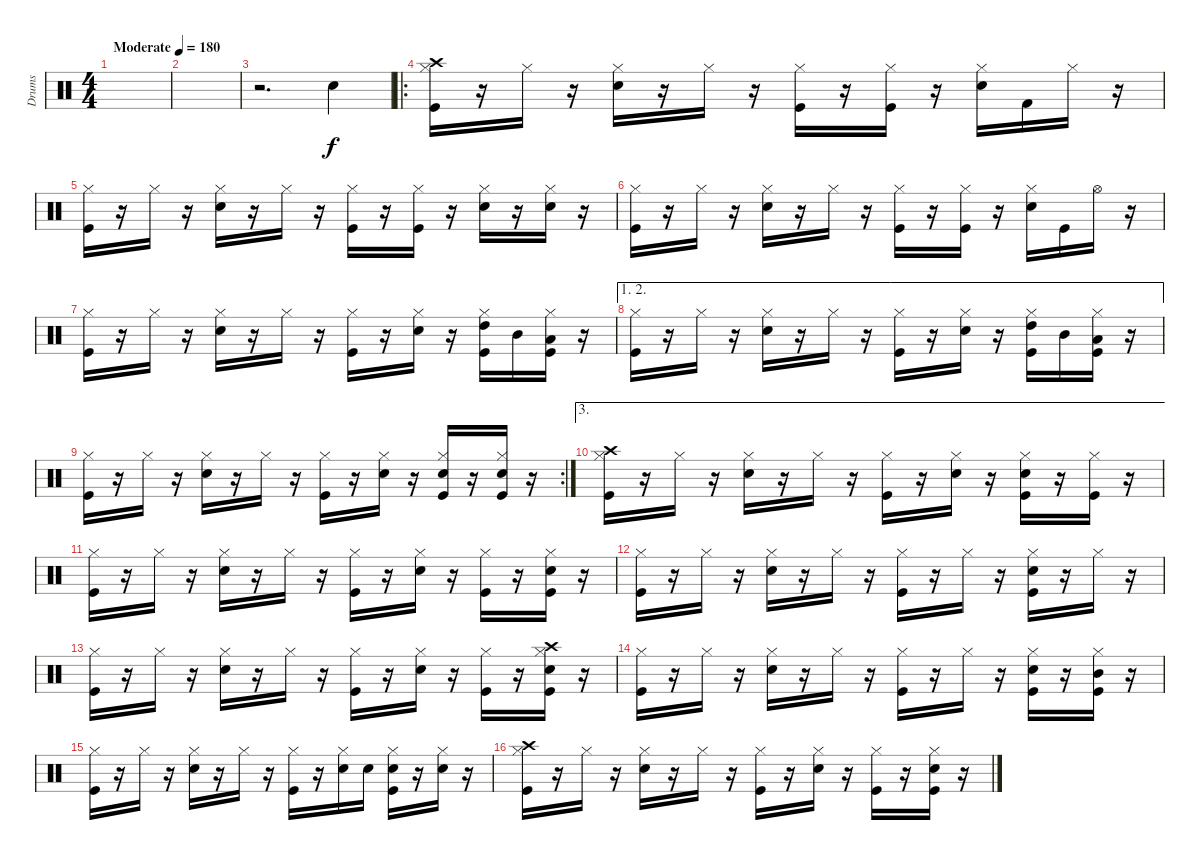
\track ("Drums" "Drums") {instrument percussion}
\staff {score}
\articulation defaults
\ts (4 4)
\tempo (180 "Moderate")
\clef neutral
\ks c
|
|
r.2{d} "Snare (hit) 2".4 |
\ro
("Crash high (hit)" "Hi-Hat (closed)" "Kick (hit)").16 r.16 "Hi-Hat (closed)".16 r.16 ("Hi-Hat (closed)" "Snare (hit) 2").16 r.16 "Hi-Hat (closed)".16 r.16 ("Hi-Hat (closed)" "Kick (hit)").16 r.16 ("Hi-Hat (closed)" "Kick (hit)").16 r.16 ("Hi-Hat (closed)" "Snare (hit) 2").16 "Kick (hit) 2".16 "Hi-Hat (closed)".16 r.16 |
("Hi-Hat (closed)" "Kick (hit)").16 r.16 "Hi-Hat (closed)".16 r.16 ("Hi-Hat (closed)" "Snare (hit) 2").16 r.16 "Hi-Hat (closed)".16 r.16 ("Hi-Hat (closed)" "Kick (hit)").16 r.16 ("Hi-Hat (closed)" "Kick (hit)").16 r.16 ("Hi-Hat (closed)" "Snare (hit) 2").16 r.16 ("Hi-Hat (closed)" "Snare (hit) 2").16 r.16 |
("Hi-Hat (closed)" "Kick (hit)").16 r.16 "Hi-Hat (closed)".16 r.16 ("Hi-Hat (closed)" "Snare (hit) 2").16 r.16 "Hi-Hat (closed)".16 r.16 ("Hi-Hat (closed)" "Kick (hit)").16 r.16 ("Hi-Hat (closed)" "Kick (hit)").16 r.16 ("Hi-Hat (closed)" "Snare (hit) 2").16 "Kick (hit)".16 "Hi-Hat (open)".16 r.16 |
("Hi-Hat (closed)" "Kick (hit)").16 r.16 "Hi-Hat (closed)".16 r.16 ("Hi-Hat (closed)" "Snare (hit) 2").16 r.16 "Hi-Hat (closed)".16 r.16 ("Hi-Hat (closed)" "Kick (hit)").16 r.16 ("Hi-Hat (closed)" "Snare (hit) 2").16 r.16 ("Hi-Hat (closed)" "High Tom (hit)" "Kick (hit)").16 "Mid Tom (hit)".16 ("Hi-Hat (closed)" "Low Tom (hit)" "Kick (hit)").16 r.16 |
\ae (1 2)
("Hi-Hat (closed)" "Kick (hit)").16 r.16 "Hi-Hat (closed)".16 r.16 ("Hi-Hat (closed)" "Snare (hit) 2").16 r.16 "Hi-Hat (closed)".16 r.16 ("Hi-Hat (closed)" "Kick (hit)").16 r.16 ("Hi-Hat (closed)" "Snare (hit) 2").16 r.16 ("Hi-Hat (closed)" "High Tom (hit)" "Kick (hit)").16 "Mid Tom (hit)".16 ("Hi-Hat (closed)" "Low Tom (hit)" "Kick (hit)").16 r.16 |
\rc 2
("Hi-Hat (closed)" "Kick (hit)").16 r.16 "Hi-Hat (closed)".16 r.16 ("Hi-Hat (closed)" "Snare (hit) 2").16 r.16 "Hi-Hat (closed)".16 r.16 ("Hi-Hat (closed)" "Kick (hit)").16 r.16 ("Hi-Hat (closed)" "Snare (hit) 2").16 r.16 ("Hi-Hat (closed)" "Snare (hit) 2" "Kick (hit)").16 r.16 ("Hi-Hat (closed)" "Snare (hit) 2" "Kick (hit)").16 r.16 |
\ae 3
("Crash high (hit)" "Hi-Hat (closed)" "Kick (hit)").16 r.16 "Hi-Hat (closed)".16 r.16 ("Hi-Hat (closed)" "Snare (hit) 2").16 r.16 "Hi-Hat (closed)".16 r.16 ("Hi-Hat (closed)" "Kick (hit)").16 r.16 ("Hi-Hat (closed)" "Snare (hit) 2").16 r.16 ("Hi-Hat (closed)" "Snare (hit) 2" "Kick (hit)").16 r.16 ("Hi-Hat (closed)" "Kick (hit)").16 r.16 |
("Hi-Hat (closed)" "Kick (hit)").16 r.16 "Hi-Hat (closed)".16 r.16 ("Hi-Hat (closed)" "Snare (hit) 2").16 r.16 "Hi-Hat (closed)".16 r.16 ("Hi-Hat (closed)" "Kick (hit)").16 r.16 ("Hi-Hat (closed)" "Snare (hit) 2").16 r.16 ("Hi-Hat (closed)" "Kick (hit)").16 r.16 ("Hi-Hat (closed)" "Snare (hit) 2" "Kick (hit)").16 r.16 |
("Hi-Hat (closed)" "Kick (hit)").16 r.16 "Hi-Hat (closed)".16 r.16 ("Hi-Hat (closed)" "Snare (hit) 2").16 r.16 "Hi-Hat (closed)".16 r.16 ("Hi-Hat (closed)" "Kick (hit)").16 r.16 "Hi-Hat (closed)".16 r.16 ("Hi-Hat (closed)" "Snare (hit) 2" "Kick (hit)").16 r.16 "Hi-Hat (closed)".16 r.16 |
("Hi-Hat (closed)" "Kick (hit)").16 r.16 "Hi-Hat (closed)".16 r.16 ("Hi-Hat (closed)" "Snare (hit) 2").16 r.16 "Hi-Hat (closed)".16 r.16 ("Hi-Hat (closed)" "Kick (hit)").16 r.16 ("Hi-Hat (closed)" "Snare (hit) 2").16 r.16 ("Hi-Hat (closed)" "Kick (hit)").16 r.16 ("Crash high (hit)" "Hi-Hat (closed)" "Snare (hit) 2" "Kick (hit)").16 r.16 |
("Hi-Hat (closed)" "Kick (hit)").16 r.16 "Hi-Hat (closed)".16 r.16 ("Hi-Hat (closed)" "Snare (hit) 2").16 r.16 "Hi-Hat (closed)".16 r.16 ("Hi-Hat (closed)" "Kick (hit)").16 r.16 "Hi-Hat (closed)".16 r.16 ("Hi-Hat (closed)" "Snare (hit) 2" "Kick (hit)").16 r.16 ("Hi-Hat (closed)" "Mid Tom (hit)" "Kick (hit)").16 r.16 |
("Hi-Hat (closed)" "Kick (hit)").16 r.16 "Hi-Hat (closed)".16 r.16 ("Hi-Hat (closed)" "Snare (hit) 2").16 r.16 "Hi-Hat (closed)".16 r.16 ("Hi-Hat (closed)" "Kick (hit)").16 r.16 ("Hi-Hat (closed)" "Snare (hit) 2").16 "Snare (hit) 2".16 ("Hi-Hat (closed)" "Snare (hit) 2" "Kick (hit)").16 r.16 ("Hi-Hat (closed)" "Snare (hit) 2").16 r.16 |
("Crash high (hit)" "Hi-Hat (closed)" "Kick (hit)").16 r.16 "Hi-Hat (closed)".16 r.16 ("Hi-Hat (closed)" "Snare (hit) 2").16 r.16 "Hi-Hat (closed)".16 r.16 ("Hi-Hat (closed)" "Kick (hit)").16 r.16 ("Hi-Hat (closed)" "Snare (hit) 2").16 r.16 ("Hi-Hat (closed)" "Kick (hit)").16 r.16 ("Hi-Hat (closed)" "Snare (hit) 2" "Kick (hit)").16 r.16
